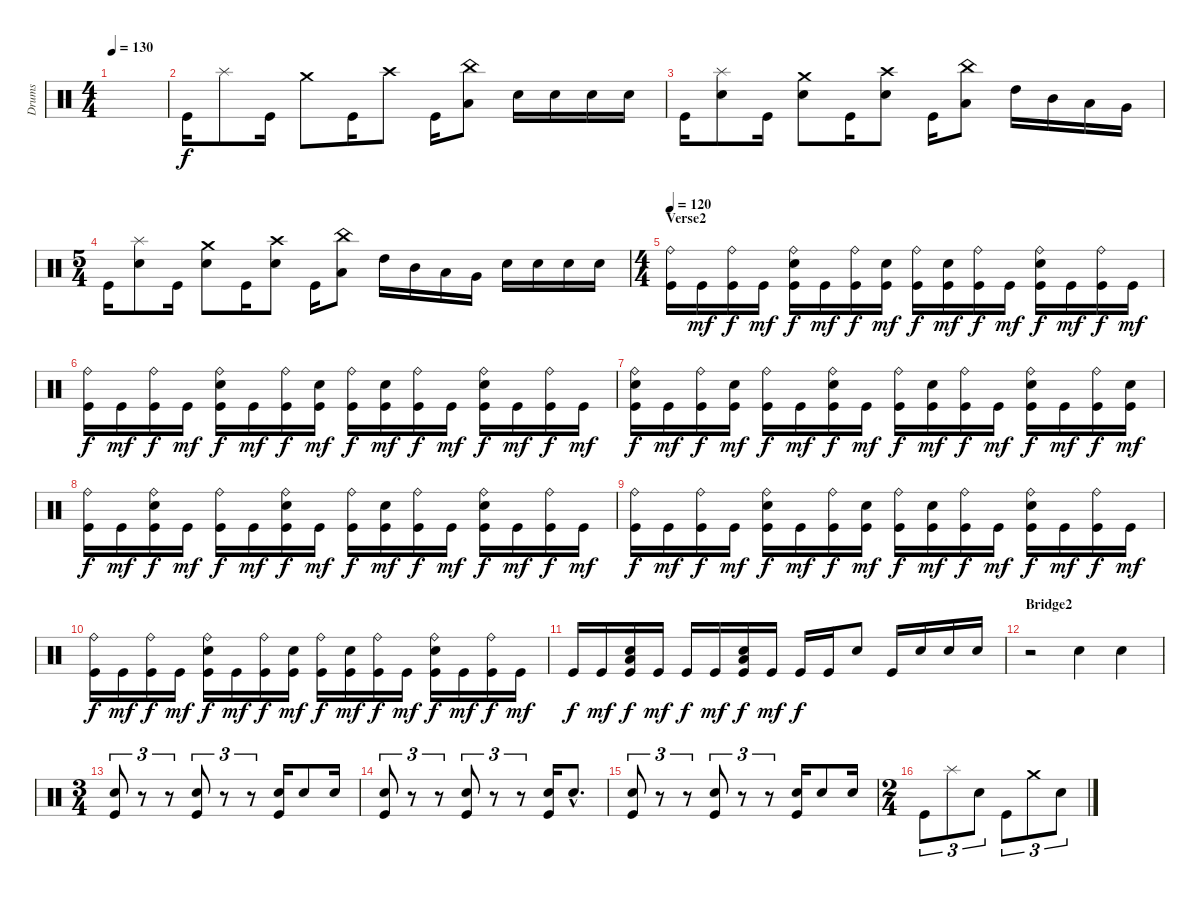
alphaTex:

\track ("Drums" "Drums") {instrument percussion}
\staff {score}
\articulation defaults
\ts (4 4)
\tempo 130
\clef neutral
\ks c
|
"Kick (hit)".16 "Splash (hit)".8 "Kick (hit)".16 "Crash medium (hit)".8 "Kick (hit)".16 "Crash high (hit)".8 "Kick (hit)".16 ("China (hit)" "Low Tom (hit)").8 "Snare (hit) 2".16 "Snare (hit) 2".16 "Snare (hit) 2".16 "Snare (hit) 2".16 |
"Kick (hit)".16 ("Splash (hit)" "Snare (hit) 2").8 "Kick (hit)".16 ("Crash medium (hit)" "Snare (hit) 2").8 "Kick (hit)".16 ("Crash high (hit)" "Snare (hit) 2").8 "Kick (hit)".16 ("China (hit)" "Low Tom (hit)").8 "High Tom (hit)".16 "Mid Tom (hit)".16 "Low Tom (hit)".16 "Very Low Tom (hit)".16 |
\ts (5 4)
"Kick (hit)".16 ("Splash (hit)" "Snare (hit) 2").8 "Kick (hit)".16 ("Crash medium (hit)" "Snare (hit) 2").8 "Kick (hit)".16 ("Crash high (hit)" "Snare (hit) 2").8 "Kick (hit)".16 ("China (hit)" "Low Tom (hit)").8 "High Tom (hit)".16 "Mid Tom (hit)".16 "Low Tom (hit)".16 "Very Low Tom (hit)".16 "Snare (hit) 2".16 "Snare (hit) 2".16 "Snare (hit) 2".16 "Snare (hit) 2".16 |
\ts (4 4)
\section ("" "Verse2")
\tempo 120
("Ride (bell)" "Kick (hit)").16 "Kick (hit)".16{dy mf} ("Ride (bell)" "Kick (hit)").16{dy f} "Kick (hit)".16{dy mf} ("Ride (bell)" "Snare (hit) 2" "Kick (hit)").16{dy f} "Kick (hit)".16{dy mf} ("Ride (bell)" "Kick (hit)").16{dy f} ("Snare (hit) 2" "Kick (hit)").16{dy mf} ("Ride (bell)" "Kick (hit)").16{dy f} ("Snare (hit) 2" "Kick (hit)").16{dy mf} ("Ride (bell)" "Kick (hit)").16{dy f} "Kick (hit)".16{dy mf} ("Ride (bell)" "Snare (hit) 2" "Kick (hit)").16{dy f} "Kick (hit)".16{dy mf} ("Ride (bell)" "Kick (hit)").16{dy f} "Kick (hit)".16{dy mf} |
("Ride (bell)" "Kick (hit)").16{dy f} "Kick (hit)".16{dy mf} ("Ride (bell)" "Kick (hit)").16{dy f} "Kick (hit)".16{dy mf} ("Ride (bell)" "Snare (hit) 2" "Kick (hit)").16{dy f} "Kick (hit)".16{dy mf} ("Ride (bell)" "Kick (hit)").16{dy f} ("Snare (hit) 2" "Kick (hit)").16{dy mf} ("Ride (bell)" "Kick (hit)").16{dy f} ("Snare (hit) 2" "Kick (hit)").16{dy mf} ("Ride (bell)" "Kick (hit)").16{dy f} "Kick (hit)".16{dy mf} ("Ride (bell)" "Snare (hit) 2" "Kick (hit)").16{dy f} "Kick (hit)".16{dy mf} ("Ride (bell)" "Kick (hit)").16{dy f} "Kick (hit)".16{dy mf} |
("Ride (bell)" "Snare (hit) 2" "Kick (hit)").16{dy f} "Kick (hit)".16{dy mf} ("Ride (bell)" "Kick (hit)").16{dy f} ("Snare (hit) 2" "Kick (hit)").16{dy mf} ("Ride (bell)" "Kick (hit)").16{dy f} "Kick (hit)".16{dy mf} ("Ride (bell)" "Snare (hit) 2" "Kick (hit)").16{dy f} "Kick (hit)".16{dy mf} ("Ride (bell)" "Kick (hit)").16{dy f} ("Snare (hit) 2" "Kick (hit)").16{dy mf} ("Ride (bell)" "Kick (hit)").16{dy f} "Kick (hit)".16{dy mf} ("Ride (bell)" "Snare (hit) 2" "Kick (hit)").16{dy f} "Kick (hit)".16{dy mf} ("Ride (bell)" "Kick (hit)").16{dy f} ("Snare (hit) 2" "Kick (hit)").16{dy mf} |
("Ride (bell)" "Kick (hit)").16{dy f} "Kick (hit)".16{dy mf} ("Ride (bell)" "Snare (hit) 2" "Kick (hit)").16{dy f} "Kick (hit)".16{dy mf} ("Ride (bell)" "Kick (hit)").16{dy f} "Kick (hit)".16{dy mf} ("Ride (bell)" "Snare (hit) 2" "Kick (hit)").16{dy f} "Kick (hit)".16{dy mf} ("Ride (bell)" "Kick (hit)").16{dy f} ("Snare (hit) 2" "Kick (hit)").16{dy mf} ("Ride (bell)" "Kick (hit)").16{dy f} "Kick (hit)".16{dy mf} ("Ride (bell)" "Snare (hit) 2" "Kick (hit)").16{dy f} "Kick (hit)".16{dy mf} ("Ride (bell)" "Kick (hit)").16{dy f} "Kick (hit)".16{dy mf} |
("Ride (bell)" "Kick (hit)").16{dy f} "Kick (hit)".16{dy mf} ("Ride (bell)" "Kick (hit)").16{dy f} "Kick (hit)".16{dy mf} ("Ride (bell)" "Snare (hit) 2" "Kick (hit)").16{dy f} "Kick (hit)".16{dy mf} ("Ride (bell)" "Kick (hit)").16{dy f} ("Snare (hit) 2" "Kick (hit)").16{dy mf} ("Ride (bell)" "Kick (hit)").16{dy f} ("Snare (hit) 2" "Kick (hit)").16{dy mf} ("Ride (bell)" "Kick (hit)").16{dy f} "Kick (hit)".16{dy mf} ("Ride (bell)" "Snare (hit) 2" "Kick (hit)").16{dy f} "Kick (hit)".16{dy mf} ("Ride (bell)" "Kick (hit)").16{dy f} "Kick (hit)".16{dy mf} |
("Ride (bell)" "Kick (hit)").16{dy f} "Kick (hit)".16{dy mf} ("Ride (bell)" "Kick (hit)").16{dy f} "Kick (hit)".16{dy mf} ("Ride (bell)" "Snare (hit) 2" "Kick (hit)").16{dy f} "Kick (hit)".16{dy mf} ("Ride (bell)" "Kick (hit)").16{dy f} ("Snare (hit) 2" "Kick (hit)").16{dy mf} ("Ride (bell)" "Kick (hit)").16{dy f} ("Snare (hit) 2" "Kick (hit)").16{dy mf} ("Ride (bell)" "Kick (hit)").16{dy f} "Kick (hit)".16{dy mf} ("Ride (bell)" "Snare (hit) 2" "Kick (hit)").16{dy f} "Kick (hit)".16{dy mf} ("Ride (bell)" "Kick (hit)").16{dy f} "Kick (hit)".16{dy mf} |
"Kick (hit)".16{dy f} "Kick (hit)".16{dy mf} ("Low Tom (hit)" "Snare (hit) 2" "Kick (hit)").16{dy f} "Kick (hit)".16{dy mf} "Kick (hit)".16{dy f} "Kick (hit)".16{dy mf} ("Low Tom (hit)" "Snare (hit) 2" "Kick (hit)").16{dy f} "Kick (hit)".16{dy mf} "Kick (hit)".16{dy f} "Kick (hit)".16 "Snare (hit) 2".8 "Kick (hit)".16 "Snare (hit) 2".16 "Snare (hit) 2".16 "Snare (hit) 2".16 |
\section ("" "Bridge2")
r.2 "Snare (hit) 2".4 "Snare (hit) 2".4 |
\ts (3 4)
("Snare (hit) 2" "Kick (hit)").8{tu (3 2)} r.8{tu (3 2)} r.8{tu (3 2)} ("Snare (hit) 2" "Kick (hit)").8{tu (3 2)} r.8{tu (3 2)} r.8{tu (3 2)} ("Snare (hit) 2" "Kick (hit)").16 "Snare (hit) 2".8 "Snare (hit) 2".16 |
("Snare (hit) 2" "Kick (hit)").8{tu (3 2)} r.8{tu (3 2)} r.8{tu (3 2)} ("Snare (hit) 2" "Kick (hit)").8{tu (3 2)} r.8{tu (3 2)} r.8{tu (3 2)} ("Snare (hit) 2" "Kick (hit)").16 "Snare (hit) 2"{hac}.8{d} |
("Snare (hit) 2" "Kick (hit)").8{tu (3 2)} r.8{tu (3 2)} r.8{tu (3 2)} ("Snare (hit) 2" "Kick (hit)").8{tu (3 2)} r.8{tu (3 2)} r.8{tu (3 2)} ("Snare (hit) 2" "Kick (hit)").16 "Snare (hit) 2".8 "Snare (hit) 2".16 |
\ts (2 4)
"Kick (hit)".8{tu (3 2)} "Splash (hit)".8{tu (3 2)} "Snare (hit) 2".8{tu (3 2)} "Kick (hit)".8{tu (3 2)} "Crash medium (hit)".8{tu (3 2)} "Snare (hit) 2".8{tu (3 2)}
